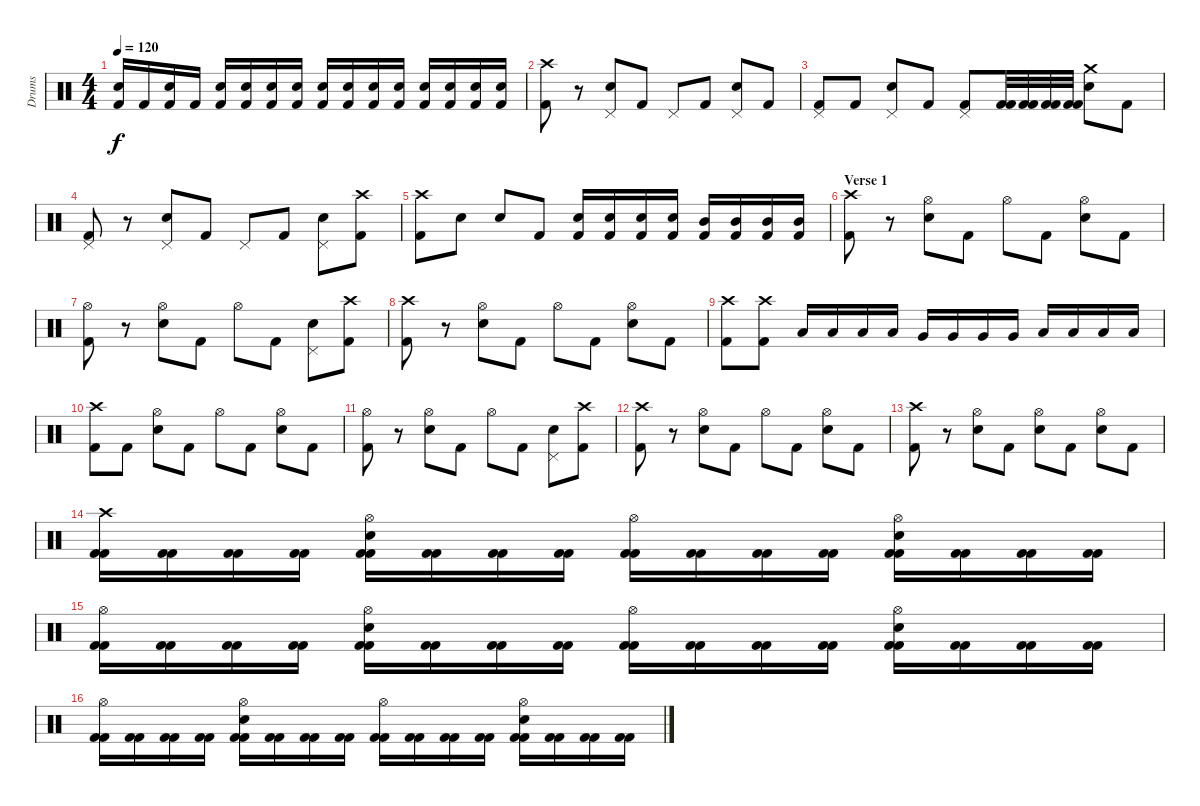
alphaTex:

\track ("Drums" "Drums") {instrument percussion}
\staff {score}
\articulation defaults
\ts (4 4)
\tempo 120
\clef neutral
\ks c
("Electric Snare (hit)" "Kick (hit) 2").16{dy f} "Kick (hit) 2".16 ("Electric Snare (hit)" "Kick (hit) 2").16 "Kick (hit) 2".16 ("Electric Snare (hit)" "Kick (hit) 2").16 ("Electric Snare (hit)" "Kick (hit) 2").16 ("Electric Snare (hit)" "Kick (hit) 2").16 ("Electric Snare (hit)" "Kick (hit) 2").16 ("Electric Snare (hit)" "Kick (hit) 2").16 ("Electric Snare (hit)" "Kick (hit) 2").16 ("Electric Snare (hit)" "Kick (hit) 2").16 ("Electric Snare (hit)" "Kick (hit) 2").16 ("Electric Snare (hit)" "Kick (hit) 2").16 ("Electric Snare (hit)" "Kick (hit) 2").16 ("Electric Snare (hit)" "Kick (hit) 2").16 ("Electric Snare (hit)" "Kick (hit) 2").16 |
("Crash high (hit)" "Kick (hit) 2").8 r.8 ("Pedal Hi-Hat (hit)" "Electric Snare (hit)").8 "Kick (hit) 2".8 "Pedal Hi-Hat (hit)".8 "Kick (hit) 2".8 ("Pedal Hi-Hat (hit)" "Electric Snare (hit)").8 "Kick (hit) 2".8 |
("Pedal Hi-Hat (hit)" "Kick (hit) 2").8 "Kick (hit) 2".8 ("Pedal Hi-Hat (hit)" "Electric Snare (hit)").8 "Kick (hit) 2".8 ("Pedal Hi-Hat (hit)" "Kick (hit) 2").8 ("Kick (hit) 2" "Kick (hit) 2").32 ("Kick (hit) 2" "Kick (hit) 2").32 ("Kick (hit) 2" "Kick (hit) 2").32 ("Kick (hit) 2" "Kick (hit) 2").32 ("Crash medium (hit)" "Electric Snare (hit)").8 "Kick (hit) 2".8 |
("Pedal Hi-Hat (hit)" "Kick (hit) 2").8 r.8 ("Pedal Hi-Hat (hit)" "Electric Snare (hit)").8 "Kick (hit) 2".8 "Pedal Hi-Hat (hit)".8 "Kick (hit) 2".8 ("Pedal Hi-Hat (hit)" "Electric Snare (hit)").8 ("Crash high (hit)" "Kick (hit) 2").8 |
("Crash high (hit)" "Kick (hit) 2").8 "Electric Snare (hit)".8 "Electric Snare (hit)".8 "Kick (hit) 2".8 ("Electric Snare (hit)" "Kick (hit) 2").16 ("Electric Snare (hit)" "Kick (hit) 2").16 ("Electric Snare (hit)" "Kick (hit) 2").16 ("Electric Snare (hit)" "Kick (hit) 2").16 ("Mid Tom (hit)" "Kick (hit) 2").16 ("Mid Tom (hit)" "Kick (hit) 2").16 ("Mid Tom (hit)" "Kick (hit) 2").16 ("Mid Tom (hit)" "Kick (hit) 2").16 |
\section ("" "Verse 1")
("Crash high (hit)" "Kick (hit) 2").8 r.8 ("Hi-Hat (open)" "Electric Snare (hit)").8 "Kick (hit) 2".8 "Hi-Hat (open)".8 "Kick (hit) 2".8 ("Hi-Hat (open)" "Electric Snare (hit)").8 "Kick (hit) 2".8 |
("Hi-Hat (open)" "Kick (hit) 2").8 r.8 ("Hi-Hat (open)" "Electric Snare (hit)").8 "Kick (hit) 2".8 "Hi-Hat (open)".8 "Kick (hit) 2".8 ("Pedal Hi-Hat (hit)" "Electric Snare (hit)").8 ("Crash high (hit)" "Kick (hit) 2").8 |
("Crash high (hit)" "Kick (hit) 2").8 r.8 ("Hi-Hat (open)" "Electric Snare (hit)").8 "Kick (hit) 2".8 "Hi-Hat (open)".8 "Kick (hit) 2".8 ("Hi-Hat (open)" "Electric Snare (hit)").8 "Kick (hit) 2".8 |
("Crash high (hit)" "Kick (hit) 2").8 ("Crash high (hit)" "Kick (hit) 2").8 "Low Tom (hit)".16 "Low Tom (hit)".16 "Low Tom (hit)".16 "Low Tom (hit)".16 "Very Low Tom (hit)".16 "Very Low Tom (hit)".16 "Very Low Tom (hit)".16 "Very Low Tom (hit)".16 "Low Floor Tom (hit)".16 "Low Floor Tom (hit)".16 "Low Floor Tom (hit)".16 "Low Floor Tom (hit)".16 |
("Crash high (hit)" "Kick (hit) 2").8 "Kick (hit) 2".8 ("Hi-Hat (open)" "Electric Snare (hit)").8 "Kick (hit) 2".8 "Hi-Hat (open)".8 "Kick (hit) 2".8 ("Hi-Hat (open)" "Electric Snare (hit)").8 "Kick (hit) 2".8 |
("Hi-Hat (open)" "Kick (hit) 2").8 r.8 ("Hi-Hat (open)" "Electric Snare (hit)").8 "Kick (hit) 2".8 "Hi-Hat (open)".8 "Kick (hit) 2".8 ("Pedal Hi-Hat (hit)" "Electric Snare (hit)").8 ("Crash high (hit)" "Kick (hit) 2").8 |
("Crash high (hit)" "Kick (hit) 2").8 r.8 ("Hi-Hat (open)" "Electric Snare (hit)").8 "Kick (hit) 2".8 "Hi-Hat (open)".8 "Kick (hit) 2".8 ("Hi-Hat (open)" "Electric Snare (hit)").8 "Kick (hit) 2".8 |
("Crash high (hit)" "Kick (hit) 2").8 r.8 ("Hi-Hat (open)" "Electric Snare (hit)").8 "Kick (hit) 2".8 ("Hi-Hat (open)" "Electric Snare (hit)").8 "Kick (hit) 2".8 ("Hi-Hat (open)" "Electric Snare (hit)").8 "Kick (hit) 2".8 |
("Crash high (hit)" "Kick (hit) 2" "Kick (hit) 2").16 ("Kick (hit) 2" "Kick (hit) 2").16 ("Kick (hit) 2" "Kick (hit) 2").16 ("Kick (hit) 2" "Kick (hit) 2").16 ("Hi-Hat (open)" "Kick (hit) 2" "Electric Snare (hit)" "Kick (hit) 2").16 ("Kick (hit) 2" "Kick (hit) 2").16 ("Kick (hit) 2" "Kick (hit) 2").16 ("Kick (hit) 2" "Kick (hit) 2").16 ("Hi-Hat (open)" "Kick (hit) 2" "Kick (hit) 2").16 ("Kick (hit) 2" "Kick (hit) 2").16 ("Kick (hit) 2" "Kick (hit) 2").16 ("Kick (hit) 2" "Kick (hit) 2").16 ("Hi-Hat (open)" "Kick (hit) 2" "Electric Snare (hit)" "Kick (hit) 2").16 ("Kick (hit) 2" "Kick (hit) 2").16 ("Kick (hit) 2" "Kick (hit) 2").16 ("Kick (hit) 2" "Kick (hit) 2").16 |
("Hi-Hat (open)" "Kick (hit) 2" "Kick (hit) 2").16 ("Kick (hit) 2" "Kick (hit) 2").16 ("Kick (hit) 2" "Kick (hit) 2").16 ("Kick (hit) 2" "Kick (hit) 2").16 ("Hi-Hat (open)" "Kick (hit) 2" "Electric Snare (hit)" "Kick (hit) 2").16 ("Kick (hit) 2" "Kick (hit) 2").16 ("Kick (hit) 2" "Kick (hit) 2").16 ("Kick (hit) 2" "Kick (hit) 2").16 ("Hi-Hat (open)" "Kick (hit) 2" "Kick (hit) 2").16 ("Kick (hit) 2" "Kick (hit) 2").16 ("Kick (hit) 2" "Kick (hit) 2").16 ("Kick (hit) 2" "Kick (hit) 2").16 ("Hi-Hat (open)" "Kick (hit) 2" "Electric Snare (hit)" "Kick (hit) 2").16 ("Kick (hit) 2" "Kick (hit) 2").16 ("Kick (hit) 2" "Kick (hit) 2").16 ("Kick (hit) 2" "Kick (hit) 2").16 |
("Hi-Hat (open)" "Kick (hit) 2" "Kick (hit) 2").16 ("Kick (hit) 2" "Kick (hit) 2").16 ("Kick (hit) 2" "Kick (hit) 2").16 ("Kick (hit) 2" "Kick (hit) 2").16 ("Hi-Hat (open)" "Kick (hit) 2" "Electric Snare (hit)" "Kick (hit) 2").16 ("Kick (hit) 2" "Kick (hit) 2").16 ("Kick (hit) 2" "Kick (hit) 2").16 ("Kick (hit) 2" "Kick (hit) 2").16 ("Hi-Hat (open)" "Kick (hit) 2" "Kick (hit) 2").16 ("Kick (hit) 2" "Kick (hit) 2").16 ("Kick (hit) 2" "Kick (hit) 2").16 ("Kick (hit) 2" "Kick (hit) 2").16 ("Hi-Hat (open)" "Kick (hit) 2" "Electric Snare (hit)" "Kick (hit) 2").16 ("Kick (hit) 2" "Kick (hit) 2").16 ("Kick (hit) 2" "Kick (hit) 2").16 ("Kick (hit) 2" "Kick (hit) 2").16
